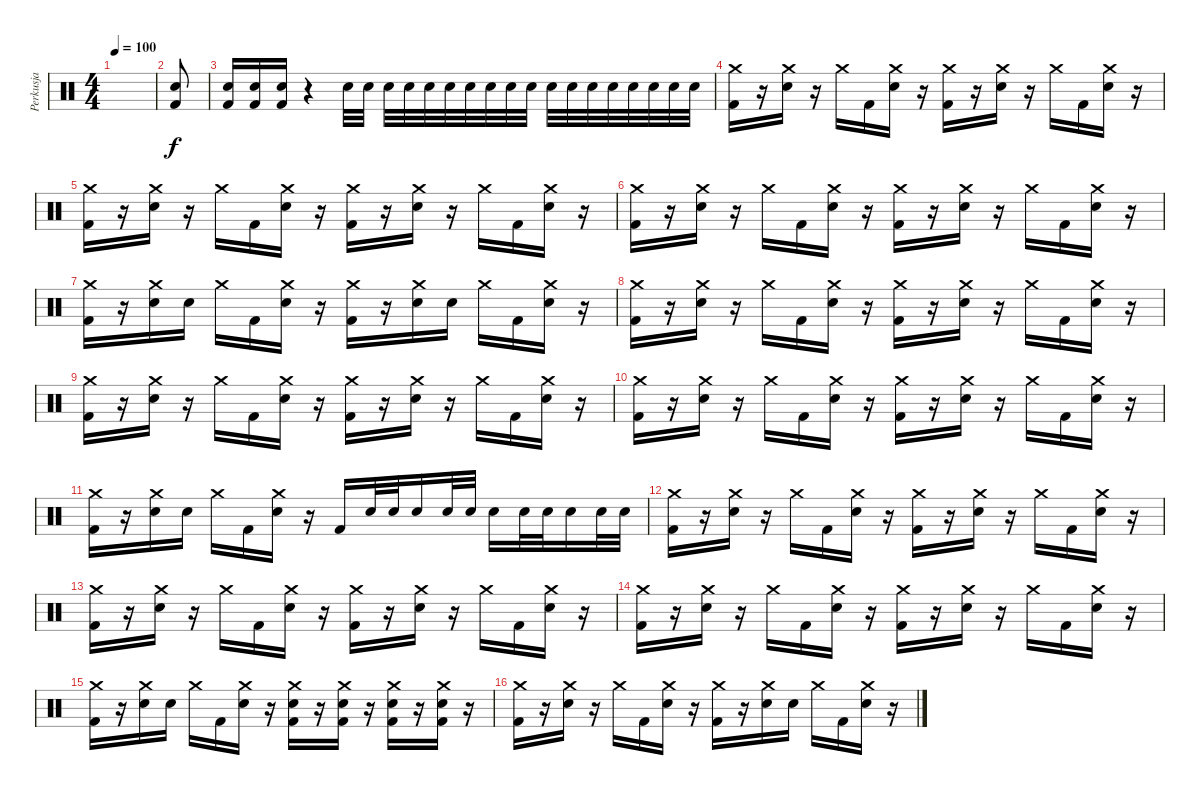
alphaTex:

\track ("Perkusja" "Perkusja") {instrument percussion}
\staff {score}
\articulation defaults
\ts (4 4)
\tempo 100
\clef neutral
\ks c
|
("Electric Snare (hit)" "Kick (hit) 2").8 |
("Electric Snare (hit)" "Kick (hit) 2").16 ("Electric Snare (hit)" "Kick (hit) 2").16 ("Electric Snare (hit)" "Kick (hit) 2").16 r.4 "Electric Snare (hit)".32 "Electric Snare (hit)".32 "Electric Snare (hit)".32 "Electric Snare (hit)".32 "Electric Snare (hit)".32 "Electric Snare (hit)".32 "Electric Snare (hit)".32 "Electric Snare (hit)".32 "Electric Snare (hit)".32 "Electric Snare (hit)".32 "Electric Snare (hit)".32 "Electric Snare (hit)".32 "Electric Snare (hit)".32 "Electric Snare (hit)".32 "Electric Snare (hit)".32 "Electric Snare (hit)".32 "Electric Snare (hit)".32 "Electric Snare (hit)".32 |
("Crash medium (hit)" "Kick (hit) 2").16 r.16 ("Crash medium (hit)" "Electric Snare (hit)").16 r.16 "Crash medium (hit)".16 "Kick (hit) 2".16 ("Crash medium (hit)" "Electric Snare (hit)").16 r.16 ("Crash medium (hit)" "Kick (hit) 2").16 r.16 ("Crash medium (hit)" "Electric Snare (hit)").16 r.16 "Crash medium (hit)".16 "Kick (hit) 2".16 ("Crash medium (hit)" "Electric Snare (hit)").16 r.16 |
("Crash medium (hit)" "Kick (hit) 2").16 r.16 ("Crash medium (hit)" "Electric Snare (hit)").16 r.16 "Crash medium (hit)".16 "Kick (hit) 2".16 ("Crash medium (hit)" "Electric Snare (hit)").16 r.16 ("Crash medium (hit)" "Kick (hit) 2").16 r.16 ("Crash medium (hit)" "Electric Snare (hit)").16 r.16 "Crash medium (hit)".16 "Kick (hit) 2".16 ("Crash medium (hit)" "Electric Snare (hit)").16 r.16 |
("Crash medium (hit)" "Kick (hit) 2").16 r.16 ("Crash medium (hit)" "Electric Snare (hit)").16 r.16 "Crash medium (hit)".16 "Kick (hit) 2".16 ("Crash medium (hit)" "Electric Snare (hit)").16 r.16 ("Crash medium (hit)" "Kick (hit) 2").16 r.16 ("Crash medium (hit)" "Electric Snare (hit)").16 r.16 "Crash medium (hit)".16 "Kick (hit) 2".16 ("Crash medium (hit)" "Electric Snare (hit)").16 r.16 |
("Crash medium (hit)" "Kick (hit) 2").16 r.16 ("Crash medium (hit)" "Electric Snare (hit)").16 "Electric Snare (hit)".16 "Crash medium (hit)".16 "Kick (hit) 2".16 ("Crash medium (hit)" "Electric Snare (hit)").16 r.16 ("Crash medium (hit)" "Kick (hit) 2").16 r.16 ("Crash medium (hit)" "Electric Snare (hit)").16 "Electric Snare (hit)".16 "Crash medium (hit)".16 "Kick (hit) 2".16 ("Crash medium (hit)" "Electric Snare (hit)").16 r.16 |
("Crash medium (hit)" "Kick (hit) 2").16 r.16 ("Crash medium (hit)" "Electric Snare (hit)").16 r.16 "Crash medium (hit)".16 "Kick (hit) 2".16 ("Crash medium (hit)" "Electric Snare (hit)").16 r.16 ("Crash medium (hit)" "Kick (hit) 2").16 r.16 ("Crash medium (hit)" "Electric Snare (hit)").16 r.16 "Crash medium (hit)".16 "Kick (hit) 2".16 ("Crash medium (hit)" "Electric Snare (hit)").16 r.16 |
("Crash medium (hit)" "Kick (hit) 2").16 r.16 ("Crash medium (hit)" "Electric Snare (hit)").16 r.16 "Crash medium (hit)".16 "Kick (hit) 2".16 ("Crash medium (hit)" "Electric Snare (hit)").16 r.16 ("Crash medium (hit)" "Kick (hit) 2").16 r.16 ("Crash medium (hit)" "Electric Snare (hit)").16 r.16 "Crash medium (hit)".16 "Kick (hit) 2".16 ("Crash medium (hit)" "Electric Snare (hit)").16 r.16 |
("Crash medium (hit)" "Kick (hit) 2").16 r.16 ("Crash medium (hit)" "Electric Snare (hit)").16 r.16 "Crash medium (hit)".16 "Kick (hit) 2".16 ("Crash medium (hit)" "Electric Snare (hit)").16 r.16 ("Crash medium (hit)" "Kick (hit) 2").16 r.16 ("Crash medium (hit)" "Electric Snare (hit)").16 r.16 "Crash medium (hit)".16 "Kick (hit) 2".16 ("Crash medium (hit)" "Electric Snare (hit)").16 r.16 |
("Crash medium (hit)" "Kick (hit) 2").16 r.16 ("Crash medium (hit)" "Electric Snare (hit)").16 "Electric Snare (hit)".16 "Crash medium (hit)".16 "Kick (hit) 2".16 ("Crash medium (hit)" "Electric Snare (hit)").16 r.16 "Kick (hit) 2".16 "Electric Snare (hit)".32 "Electric Snare (hit)".32 "Electric Snare (hit)".16 "Electric Snare (hit)".32 "Electric Snare (hit)".32 "Electric Snare (hit)".16 "Electric Snare (hit)".32 "Electric Snare (hit)".32 "Electric Snare (hit)".16 "Electric Snare (hit)".32 "Electric Snare (hit)".32 |
("Crash medium (hit)" "Kick (hit) 2").16 r.16 ("Crash medium (hit)" "Electric Snare (hit)").16 r.16 "Crash medium (hit)".16 "Kick (hit) 2".16 ("Crash medium (hit)" "Electric Snare (hit)").16 r.16 ("Crash medium (hit)" "Kick (hit) 2").16 r.16 ("Crash medium (hit)" "Electric Snare (hit)").16 r.16 "Crash medium (hit)".16 "Kick (hit) 2".16 ("Crash medium (hit)" "Electric Snare (hit)").16 r.16 |
("Crash medium (hit)" "Kick (hit) 2").16 r.16 ("Crash medium (hit)" "Electric Snare (hit)").16 r.16 "Crash medium (hit)".16 "Kick (hit) 2".16 ("Crash medium (hit)" "Electric Snare (hit)").16 r.16 ("Crash medium (hit)" "Kick (hit) 2").16 r.16 ("Crash medium (hit)" "Electric Snare (hit)").16 r.16 "Crash medium (hit)".16 "Kick (hit) 2".16 ("Crash medium (hit)" "Electric Snare (hit)").16 r.16 |
("Crash medium (hit)" "Kick (hit) 2").16 r.16 ("Crash medium (hit)" "Electric Snare (hit)").16 r.16 "Crash medium (hit)".16 "Kick (hit) 2".16 ("Crash medium (hit)" "Electric Snare (hit)").16 r.16 ("Crash medium (hit)" "Kick (hit) 2").16 r.16 ("Crash medium (hit)" "Electric Snare (hit)").16 r.16 "Crash medium (hit)".16 "Kick (hit) 2".16 ("Crash medium (hit)" "Electric Snare (hit)").16 r.16 |
("Crash medium (hit)" "Kick (hit) 2").16 r.16 ("Crash medium (hit)" "Electric Snare (hit)").16 "Electric Snare (hit)".16 "Crash medium (hit)".16 "Kick (hit) 2".16 ("Crash medium (hit)" "Electric Snare (hit)").16 r.16 ("Crash medium (hit)" "Electric Snare (hit)" "Kick (hit) 2").16 r.16 ("Crash medium (hit)" "Electric Snare (hit)" "Kick (hit) 2").16 r.16 ("Crash medium (hit)" "Electric Snare (hit)" "Kick (hit) 2").16 r.16 ("Crash medium (hit)" "Electric Snare (hit)" "Kick (hit) 2").16 r.16 |
("Crash medium (hit)" "Kick (hit) 2").16 r.16 ("Crash medium (hit)" "Electric Snare (hit)").16 r.16 "Crash medium (hit)".16 "Kick (hit) 2".16 ("Crash medium (hit)" "Electric Snare (hit)").16 r.16 ("Crash medium (hit)" "Kick (hit) 2").16 r.16 ("Crash medium (hit)" "Electric Snare (hit)").16 "Electric Snare (hit)".16 "Crash medium (hit)".16 "Kick (hit) 2".16 ("Crash medium (hit)" "Electric Snare (hit)").16 r.16
